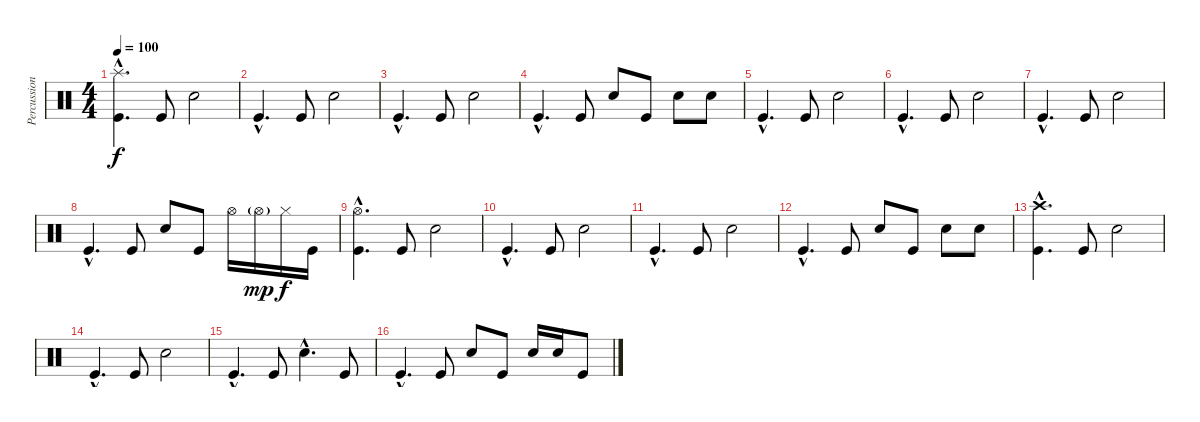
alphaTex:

\track ("Percussion" "Percussion") {instrument percussion}
\staff {score}
\articulation defaults
\ts (4 4)
\tempo 100
\clef neutral
\ks c
("Splash (hit)"{hac} "Kick (hit)"{hac}).4{d dy f} "Kick (hit)".8 "Snare (hit) 2".2 |
"Kick (hit)"{hac}.4{d} "Kick (hit)".8 "Snare (hit) 2".2 |
"Kick (hit)"{hac}.4{d} "Kick (hit)".8 "Snare (hit) 2".2 |
"Kick (hit)"{hac}.4{d} "Kick (hit)".8 "Snare (hit) 2".8 "Kick (hit)".8 "Snare (hit) 2".8 "Snare (hit) 2".8 |
"Kick (hit)"{hac}.4{d} "Kick (hit)".8 "Snare (hit) 2".2 |
"Kick (hit)"{hac}.4{d} "Kick (hit)".8 "Snare (hit) 2".2 |
"Kick (hit)"{hac}.4{d} "Kick (hit)".8 "Snare (hit) 2".2 |
"Kick (hit)"{hac}.4{d} "Kick (hit)".8 "Snare (hit) 2".8 "Kick (hit)".8 "Hi-Hat (open)".16 "Hi-Hat (open)"{g}.16{dy mp} "Hi-Hat (closed)".16{dy f} "Kick (hit)".16 |
("Hi-Hat (open)"{hac} "Kick (hit)"{hac}).4{d} "Kick (hit)".8 "Snare (hit) 2".2 |
"Kick (hit)"{hac}.4{d} "Kick (hit)".8 "Snare (hit) 2".2 |
"Kick (hit)"{hac}.4{d} "Kick (hit)".8 "Snare (hit) 2".2 |
"Kick (hit)"{hac}.4{d} "Kick (hit)".8 "Snare (hit) 2".8 "Kick (hit)".8 "Snare (hit) 2".8 "Snare (hit) 2".8 |
("Crash high (hit)"{hac} "Kick (hit)"{hac}).4{d} "Kick (hit)".8 "Snare (hit) 2".2 |
"Kick (hit)"{hac}.4{d} "Kick (hit)".8 "Snare (hit) 2".2 |
"Kick (hit)"{hac}.4{d} "Kick (hit)".8 "Snare (hit) 2"{hac}.4{d} "Kick (hit)".8 |
"Kick (hit)"{hac}.4{d} "Kick (hit)".8 "Snare (hit) 2".8 "Kick (hit)".8 "Snare (hit) 2".16 "Snare (hit) 2".16 "Kick (hit)".8
